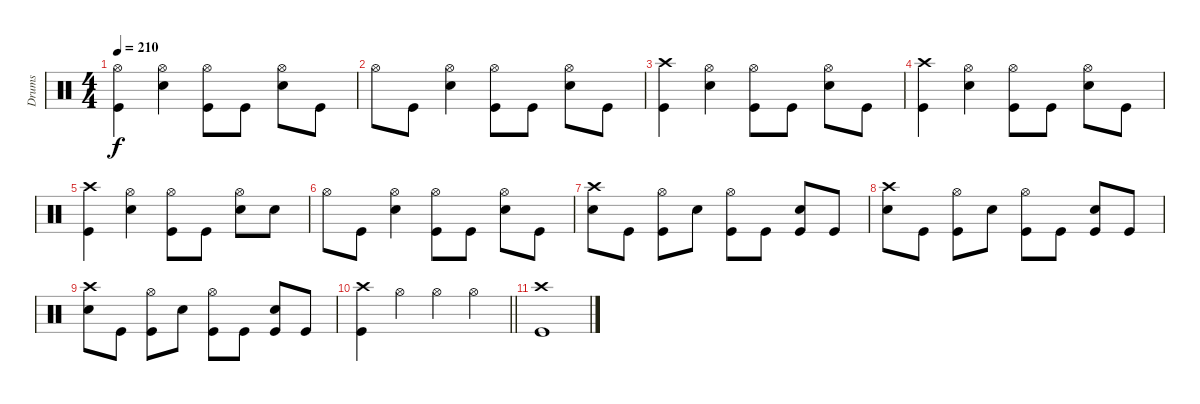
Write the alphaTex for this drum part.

\track ("Drums" "Drums") {instrument percussion}
\staff {score}
\articulation defaults
\ts (4 4)
\tempo 210
\clef neutral
\ks c
("Hi-Hat (open)" "Kick (hit)").4{dy f} ("Hi-Hat (open)" "Snare (hit) 2").4 ("Hi-Hat (open)" "Kick (hit)").8 "Kick (hit)".8 ("Hi-Hat (open)" "Snare (hit) 2").8 "Kick (hit)".8 |
"Hi-Hat (open)".8 "Kick (hit)".8 ("Hi-Hat (open)" "Snare (hit) 2").4 ("Hi-Hat (open)" "Kick (hit)").8 "Kick (hit)".8 ("Hi-Hat (open)" "Snare (hit) 2").8 "Kick (hit)".8 |
("Crash high (hit)" "Kick (hit)").4 ("Hi-Hat (open)" "Snare (hit) 2").4 ("Hi-Hat (open)" "Kick (hit)").8 "Kick (hit)".8 ("Hi-Hat (open)" "Snare (hit) 2").8 "Kick (hit)".8 |
("Crash high (hit)" "Kick (hit)").4 ("Hi-Hat (open)" "Snare (hit) 2").4 ("Hi-Hat (open)" "Kick (hit)").8 "Kick (hit)".8 ("Hi-Hat (open)" "Snare (hit) 2").8 "Kick (hit)".8 |
("Crash high (hit)" "Kick (hit)").4 ("Hi-Hat (open)" "Snare (hit) 2").4 ("Hi-Hat (open)" "Kick (hit)").8 "Kick (hit)".8 ("Hi-Hat (open)" "Snare (hit) 2").8 "Snare (hit) 2".8 |
"Hi-Hat (open)".8 "Kick (hit)".8 ("Hi-Hat (open)" "Snare (hit) 2").4 ("Hi-Hat (open)" "Kick (hit)").8 "Kick (hit)".8 ("Hi-Hat (open)" "Snare (hit) 2").8 "Kick (hit)".8 |
("Crash high (hit)" "Snare (hit) 2").8 "Kick (hit)".8 ("Hi-Hat (open)" "Kick (hit)").8 "Snare (hit) 2".8 ("Hi-Hat (open)" "Kick (hit)").8 "Kick (hit)".8 ("Kick (hit)" "Snare (hit) 2").8 "Kick (hit)".8 |
("Crash high (hit)" "Snare (hit) 2").8 "Kick (hit)".8 ("Hi-Hat (open)" "Kick (hit)").8 "Snare (hit) 2".8 ("Hi-Hat (open)" "Kick (hit)").8 "Kick (hit)".8 ("Kick (hit)" "Snare (hit) 2").8 "Kick (hit)".8 |
("Crash high (hit)" "Snare (hit) 2").8 "Kick (hit)".8 ("Hi-Hat (open)" "Kick (hit)").8 "Snare (hit) 2".8 ("Hi-Hat (open)" "Kick (hit)").8 "Kick (hit)".8 ("Kick (hit)" "Snare (hit) 2").8 "Kick (hit)".8 |
\barLineRight lightlight
("Crash high (hit)" "Kick (hit)").4 "Hi-Hat (open)".4 "Hi-Hat (open)".4 "Hi-Hat (open)".4 |
("Crash high (hit)" "Kick (hit)").1
